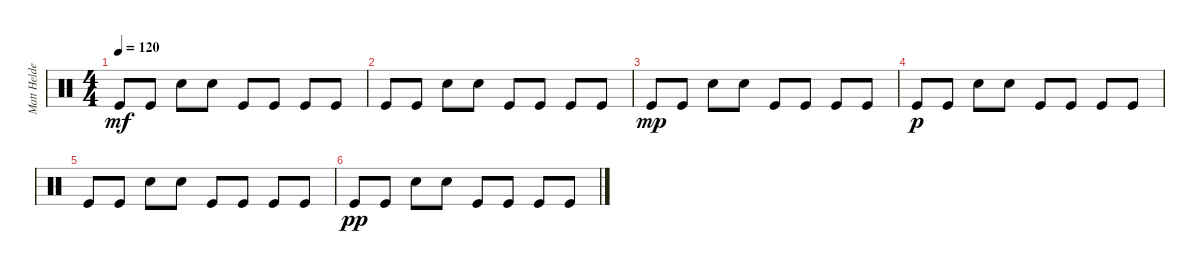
\track ("Matt Helders" "Matt Helde") {instrument percussion}
\staff {score}
\articulation defaults
\ts (4 4)
\tempo 120
\clef neutral
\ks c "Kick (hit)".8{dy mf} "Kick (hit)".8 "Electric Snare (hit)".8 "Electric Snare (hit)".8 "Kick (hit)".8 "Kick (hit)".8 "Kick (hit)".8 "Kick (hit)".8
|
"Kick (hit)".8 "Kick (hit)".8 "Electric Snare (hit)".8 "Electric Snare (hit)".8 "Kick (hit)".8 "Kick (hit)".8 "Kick (hit)".8 "Kick (hit)".8 |
"Kick (hit)".8{dy mp} "Kick (hit)".8 "Electric Snare (hit)".8 "Electric Snare (hit)".8 "Kick (hit)".8 "Kick (hit)".8 "Kick (hit)".8 "Kick (hit)".8 |
"Kick (hit)".8{dy p} "Kick (hit)".8 "Electric Snare (hit)".8 "Electric Snare (hit)".8 "Kick (hit)".8 "Kick (hit)".8 "Kick (hit)".8 "Kick (hit)".8 |
"Kick (hit)".8 "Kick (hit)".8 "Electric Snare (hit)".8 "Electric Snare (hit)".8 "Kick (hit)".8 "Kick (hit)".8 "Kick (hit)".8 "Kick (hit)".8 |
"Kick (hit)".8{dy pp} "Kick (hit)".8 "Electric Snare (hit)".8 "Electric Snare (hit)".8 "Kick (hit)".8 "Kick (hit)".8 "Kick (hit)".8 "Kick (hit)".8
